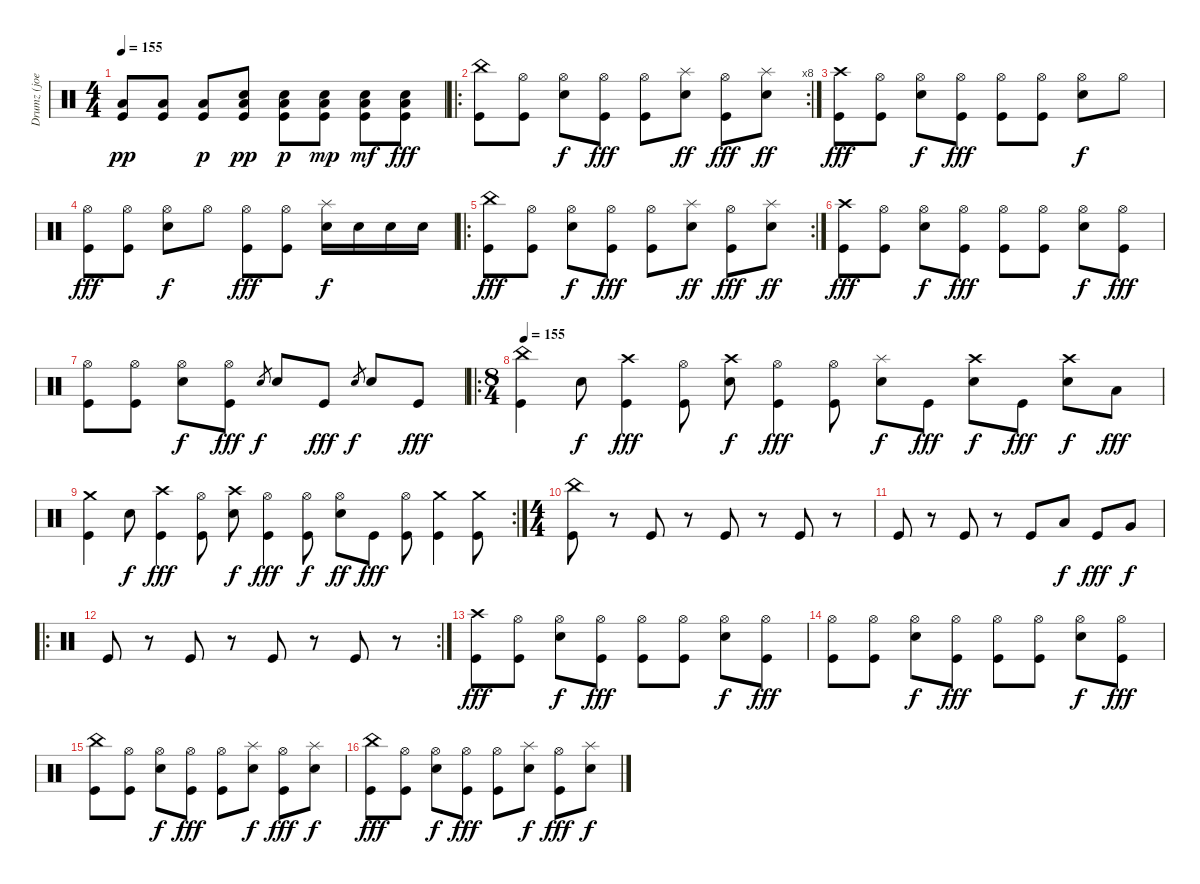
\track ("Drumz (joey on album)" "Drumz (joe") {instrument percussion}
\staff {score}
\articulation defaults
\ts (4 4)
\tempo 155
\clef neutral
\ks c
("Low Floor Tom (hit)" "Kick (hit)").8{dy pp} ("Low Floor Tom (hit)" "Kick (hit)").8 ("Low Floor Tom (hit)" "Kick (hit)").8{dy p} ("Low Floor Tom (hit)" "Kick (hit)" "Metronome (bell)").8{dy pp} ("Low Floor Tom (hit)" "Kick (hit)" "Metronome (bell)").8{dy p} ("Low Floor Tom (hit)" "Kick (hit)" "Metronome (bell)").8{dy mp} ("Low Floor Tom (hit)" "Kick (hit)" "Metronome (bell)").8{dy mf} ("Low Floor Tom (hit)" "Kick (hit)" "Metronome (bell)").8{dy fff} |
\ro
\rc 8
("China (hit)" "Kick (hit)").8 ("Hi-Hat (open)" "Kick (hit)").8 ("Hi-Hat (open)" "Metronome (bell)").8{dy f} ("Hi-Hat (open)" "Kick (hit)").8{dy fff} ("Hi-Hat (open)" "Kick (hit)").8 ("Splash (hit)" "Metronome (bell)").8{dy ff} ("Hi-Hat (open)" "Kick (hit)").8{dy fff} ("Splash (hit)" "Metronome (bell)").8{dy ff} |
("Crash high (hit)" "Kick (hit)").8{dy fff} ("Hi-Hat (open)" "Kick (hit)").8 ("Hi-Hat (open)" "Metronome (bell)").8{dy f} ("Hi-Hat (open)" "Kick (hit)").8{dy fff} ("Hi-Hat (open)" "Kick (hit)").8 ("Hi-Hat (open)" "Kick (hit)").8 ("Hi-Hat (open)" "Metronome (bell)").8{dy f} "Hi-Hat (open)".8 |
("Hi-Hat (open)" "Kick (hit)").8{dy fff} ("Hi-Hat (open)" "Kick (hit)").8 ("Hi-Hat (open)" "Metronome (bell)").8{dy f} "Hi-Hat (open)".8 ("Hi-Hat (open)" "Kick (hit)").8{dy fff} ("Hi-Hat (open)" "Kick (hit)").8 ("Splash (hit)" "Metronome (bell)").16{dy f} "Metronome (bell)".16 "Metronome (bell)".16 "Metronome (bell)".16 |
\ro
\rc 2
("China (hit)" "Kick (hit)").8{dy fff} ("Hi-Hat (open)" "Kick (hit)").8 ("Hi-Hat (open)" "Metronome (bell)").8{dy f} ("Hi-Hat (open)" "Kick (hit)").8{dy fff} ("Hi-Hat (open)" "Kick (hit)").8 ("Splash (hit)" "Metronome (bell)").8{dy ff} ("Hi-Hat (open)" "Kick (hit)").8{dy fff} ("Splash (hit)" "Metronome (bell)").8{dy ff} |
("Crash high (hit)" "Kick (hit)").8{dy fff} ("Hi-Hat (open)" "Kick (hit)").8 ("Hi-Hat (open)" "Metronome (bell)").8{dy f} ("Hi-Hat (open)" "Kick (hit)").8{dy fff} ("Hi-Hat (open)" "Kick (hit)").8 ("Hi-Hat (open)" "Kick (hit)").8 ("Hi-Hat (open)" "Metronome (bell)").8{dy f} ("Hi-Hat (open)" "Kick (hit)").8{dy fff} |
("Hi-Hat (open)" "Kick (hit)").8 ("Hi-Hat (open)" "Kick (hit)").8 ("Hi-Hat (open)" "Metronome (bell)").8{dy f} ("Hi-Hat (open)" "Kick (hit)").8{dy fff} "Metronome (bell)".8{gr dy f} "Metronome (bell)".8 "Kick (hit)".8{dy fff} "Metronome (bell)".8{gr dy f} "Metronome (bell)".8 "Kick (hit)".8{dy fff} |
\ro
\ts (8 4)
\tempo 155
("China (hit)" "Kick (hit)").4 "Metronome (bell)".8{dy f} ("Crash high (hit)" "Kick (hit)").4{dy fff} ("Hi-Hat (open)" "Kick (hit)").8 ("Crash high (hit)" "Metronome (bell)").8{dy f} ("Hi-Hat (open)" "Kick (hit)").4{dy fff} ("Hi-Hat (open)" "Kick (hit)").8 ("Splash (hit)" "Metronome (bell)").8{dy f} "Kick (hit)".8{dy fff} ("Crash high (hit)" "Metronome (bell)").8{dy f} "Kick (hit)".8{dy fff} ("Crash high (hit)" "Metronome (bell)").8{dy f} "Low Tom (hit)".8{dy fff} |
\rc 2
("Crash medium (hit)" "Kick (hit)").4 "Metronome (bell)".8{dy f} ("Crash high (hit)" "Kick (hit)").4{dy fff} ("Hi-Hat (open)" "Kick (hit)").8 ("Crash high (hit)" "Metronome (bell)").8{dy f} ("Hi-Hat (open)" "Kick (hit)").4{dy fff} ("Hi-Hat (open)" "Kick (hit)").8{dy f} ("Hi-Hat (open)" "Metronome (bell)").8{dy ff} "Kick (hit)".8{dy fff} ("Hi-Hat (open)" "Kick (hit)").8 ("Crash medium (hit)" "Kick (hit)").4 ("Crash medium (hit)" "Kick (hit)").8 |
\ts (4 4)
("China (hit)" "Kick (hit)").8 r.8 "Kick (hit)".8 r.8 "Kick (hit)".8 r.8 "Kick (hit)".8 r.8 |
"Kick (hit)".8 r.8 "Kick (hit)".8 r.8 "Kick (hit)".8 "Low Tom (hit)".8{dy f} "Kick (hit)".8{dy fff} "Very Low Tom (hit)".8{dy f} |
\ro
\rc 2 "Kick (hit)".8
r.8 "Kick (hit)".8 r.8 "Kick (hit)".8 r.8 "Kick (hit)".8 r.8 |
("Crash high (hit)" "Kick (hit)").8{dy fff} ("Hi-Hat (open)" "Kick (hit)").8 ("Hi-Hat (open)" "Metronome (bell)").8{dy f} ("Hi-Hat (open)" "Kick (hit)").8{dy fff} ("Hi-Hat (open)" "Kick (hit)").8 ("Hi-Hat (open)" "Kick (hit)").8 ("Hi-Hat (open)" "Metronome (bell)").8{dy f} ("Hi-Hat (open)" "Kick (hit)").8{dy fff} |
("Hi-Hat (open)" "Kick (hit)").8 ("Hi-Hat (open)" "Kick (hit)").8 ("Hi-Hat (open)" "Metronome (bell)").8{dy f} ("Hi-Hat (open)" "Kick (hit)").8{dy fff} ("Hi-Hat (open)" "Kick (hit)").8 ("Hi-Hat (open)" "Kick (hit)").8 ("Hi-Hat (open)" "Metronome (bell)").8{dy f} ("Hi-Hat (open)" "Kick (hit)").8{dy fff} |
("China (hit)" "Kick (hit)").8 ("Hi-Hat (open)" "Kick (hit)").8 ("Hi-Hat (open)" "Metronome (bell)").8{dy f} ("Hi-Hat (open)" "Kick (hit)").8{dy fff} ("Hi-Hat (open)" "Kick (hit)").8 ("Splash (hit)" "Metronome (bell)").8{dy f} ("Hi-Hat (open)" "Kick (hit)").8{dy fff} ("Splash (hit)" "Metronome (bell)").8{dy f} |
("China (hit)" "Kick (hit)").8{dy fff} ("Hi-Hat (open)" "Kick (hit)").8 ("Hi-Hat (open)" "Metronome (bell)").8{dy f} ("Hi-Hat (open)" "Kick (hit)").8{dy fff} ("Hi-Hat (open)" "Kick (hit)").8 ("Splash (hit)" "Metronome (bell)").8{dy f} ("Hi-Hat (open)" "Kick (hit)").8{dy fff} ("Splash (hit)" "Metronome (bell)").8{dy f}
